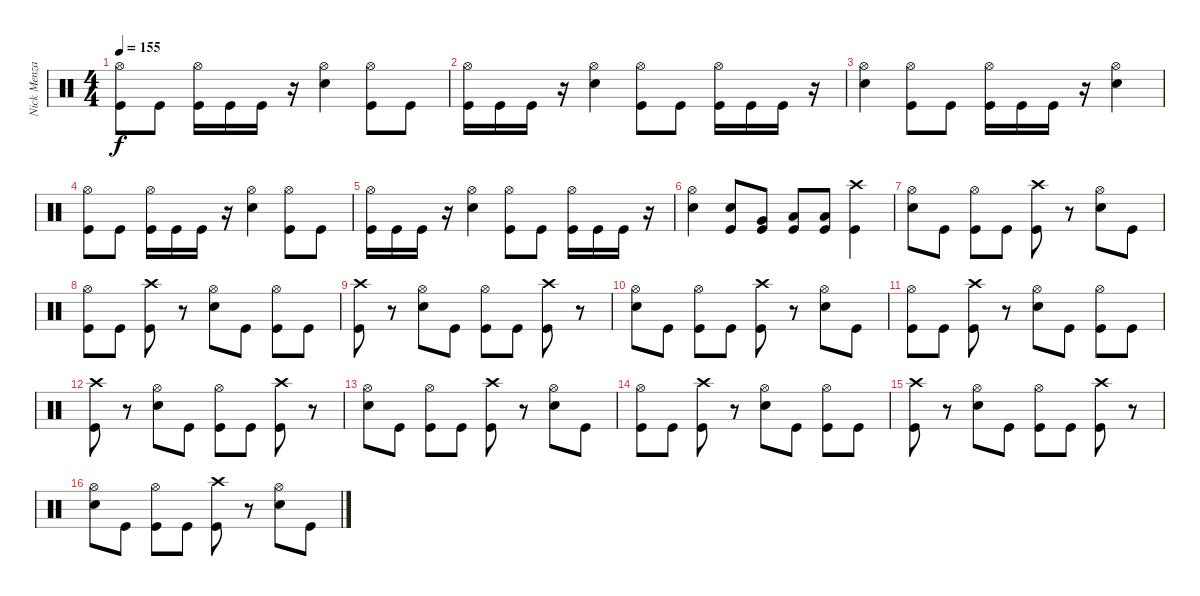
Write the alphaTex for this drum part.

\track ("Nick Menza" "Nick Menza") {instrument percussion}
\staff {score}
\articulation defaults
\ts (4 4)
\tempo 155
\clef neutral
\ks c
("Hi-Hat (open)" "Kick (hit)").8{dy f} "Kick (hit)".8 ("Hi-Hat (open)" "Kick (hit)").16 "Kick (hit)".16 "Kick (hit)".16 r.16 ("Hi-Hat (open)" "Snare (hit) 2").4 ("Hi-Hat (open)" "Kick (hit)").8 "Kick (hit)".8 |
("Hi-Hat (open)" "Kick (hit)").16 "Kick (hit)".16 "Kick (hit)".16 r.16 ("Hi-Hat (open)" "Snare (hit) 2").4 ("Hi-Hat (open)" "Kick (hit)").8 "Kick (hit)".8 ("Hi-Hat (open)" "Kick (hit)").16 "Kick (hit)".16 "Kick (hit)".16 r.16 |
("Hi-Hat (open)" "Snare (hit) 2").4 ("Hi-Hat (open)" "Kick (hit)").8 "Kick (hit)".8 ("Hi-Hat (open)" "Kick (hit)").16 "Kick (hit)".16 "Kick (hit)".16 r.16 ("Hi-Hat (open)" "Snare (hit) 2").4 |
("Hi-Hat (open)" "Kick (hit)").8 "Kick (hit)".8 ("Hi-Hat (open)" "Kick (hit)").16 "Kick (hit)".16 "Kick (hit)".16 r.16 ("Hi-Hat (open)" "Snare (hit) 2").4 ("Hi-Hat (open)" "Kick (hit)").8 "Kick (hit)".8 |
("Hi-Hat (open)" "Kick (hit)").16 "Kick (hit)".16 "Kick (hit)".16 r.16 ("Hi-Hat (open)" "Snare (hit) 2").4 ("Hi-Hat (open)" "Kick (hit)").8 "Kick (hit)".8 ("Hi-Hat (open)" "Kick (hit)").16 "Kick (hit)".16 "Kick (hit)".16 r.16 |
("Hi-Hat (open)" "Snare (hit) 2").4 ("Snare (hit) 2" "Kick (hit)").8 ("Very Low Tom (hit)" "Kick (hit)").8 ("Low Floor Tom (hit)" "Kick (hit)").8 ("Low Floor Tom (hit)" "Kick (hit)").8 ("Crash high (hit)" "Kick (hit)").4 |
("Hi-Hat (open)" "Snare (hit) 2").8 "Kick (hit)".8 ("Hi-Hat (open)" "Kick (hit)").8 "Kick (hit)".8 ("Crash high (hit)" "Kick (hit)").8 r.8 ("Hi-Hat (open)" "Snare (hit) 2").8 "Kick (hit)".8 |
("Hi-Hat (open)" "Kick (hit)").8 "Kick (hit)".8 ("Crash high (hit)" "Kick (hit)").8 r.8 ("Hi-Hat (open)" "Snare (hit) 2").8 "Kick (hit)".8 ("Hi-Hat (open)" "Kick (hit)").8 "Kick (hit)".8 |
("Crash high (hit)" "Kick (hit)").8 r.8 ("Hi-Hat (open)" "Snare (hit) 2").8 "Kick (hit)".8 ("Hi-Hat (open)" "Kick (hit)").8 "Kick (hit)".8 ("Crash high (hit)" "Kick (hit)").8 r.8 |
("Hi-Hat (open)" "Snare (hit) 2").8 "Kick (hit)".8 ("Hi-Hat (open)" "Kick (hit)").8 "Kick (hit)".8 ("Crash high (hit)" "Kick (hit)").8 r.8 ("Hi-Hat (open)" "Snare (hit) 2").8 "Kick (hit)".8 |
("Hi-Hat (open)" "Kick (hit)").8 "Kick (hit)".8 ("Crash high (hit)" "Kick (hit)").8 r.8 ("Hi-Hat (open)" "Snare (hit) 2").8 "Kick (hit)".8 ("Hi-Hat (open)" "Kick (hit)").8 "Kick (hit)".8 |
("Crash high (hit)" "Kick (hit)").8 r.8 ("Hi-Hat (open)" "Snare (hit) 2").8 "Kick (hit)".8 ("Hi-Hat (open)" "Kick (hit)").8 "Kick (hit)".8 ("Crash high (hit)" "Kick (hit)").8 r.8 |
("Hi-Hat (open)" "Snare (hit) 2").8 "Kick (hit)".8 ("Hi-Hat (open)" "Kick (hit)").8 "Kick (hit)".8 ("Crash high (hit)" "Kick (hit)").8 r.8 ("Hi-Hat (open)" "Snare (hit) 2").8 "Kick (hit)".8 |
("Hi-Hat (open)" "Kick (hit)").8 "Kick (hit)".8 ("Crash high (hit)" "Kick (hit)").8 r.8 ("Hi-Hat (open)" "Snare (hit) 2").8 "Kick (hit)".8 ("Hi-Hat (open)" "Kick (hit)").8 "Kick (hit)".8 |
("Crash high (hit)" "Kick (hit)").8 r.8 ("Hi-Hat (open)" "Snare (hit) 2").8 "Kick (hit)".8 ("Hi-Hat (open)" "Kick (hit)").8 "Kick (hit)".8 ("Crash high (hit)" "Kick (hit)").8 r.8 |
("Hi-Hat (open)" "Snare (hit) 2").8 "Kick (hit)".8 ("Hi-Hat (open)" "Kick (hit)").8 "Kick (hit)".8 ("Crash high (hit)" "Kick (hit)").8 r.8 ("Hi-Hat (open)" "Snare (hit) 2").8 "Kick (hit)".8
